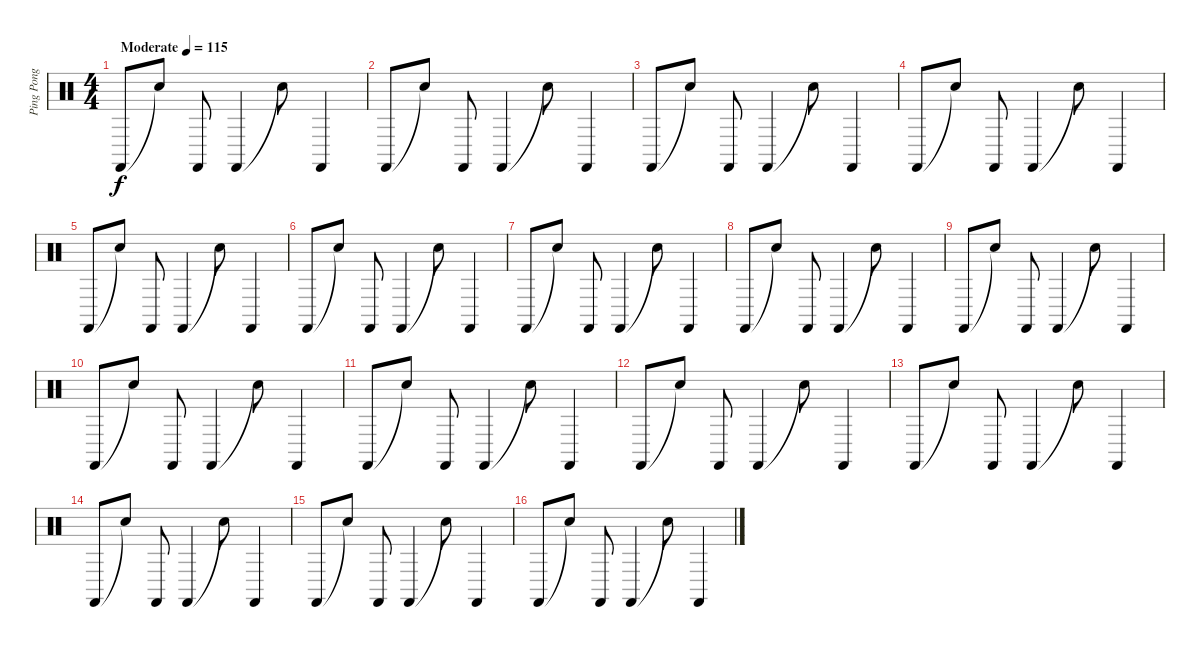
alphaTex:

\track ("Ping Pong" "Ping Pong") {instrument percussion}
\staff {score}
\articulation defaults
\ts (4 4)
\tempo (115 "Moderate")
\clef neutral
\ks c "Castanets (hit)".8{dy f} "Snare (hit)"{t}.8 "Castanets (hit)".8 "Castanets (hit)".4 "Snare (hit)"{t}.8 "Castanets (hit)".4
|
"Castanets (hit)".8 "Snare (hit)"{t}.8 "Castanets (hit)".8 "Castanets (hit)".4 "Snare (hit)"{t}.8 "Castanets (hit)".4 |
"Castanets (hit)".8 "Snare (hit)"{t}.8 "Castanets (hit)".8 "Castanets (hit)".4 "Snare (hit)"{t}.8 "Castanets (hit)".4 |
"Castanets (hit)".8 "Snare (hit)"{t}.8 "Castanets (hit)".8 "Castanets (hit)".4 "Snare (hit)"{t}.8 "Castanets (hit)".4 |
"Castanets (hit)".8 "Snare (hit)"{t}.8 "Castanets (hit)".8 "Castanets (hit)".4 "Snare (hit)"{t}.8 "Castanets (hit)".4 |
"Castanets (hit)".8 "Snare (hit)"{t}.8 "Castanets (hit)".8 "Castanets (hit)".4 "Snare (hit)"{t}.8 "Castanets (hit)".4 |
"Castanets (hit)".8 "Snare (hit)"{t}.8 "Castanets (hit)".8 "Castanets (hit)".4 "Snare (hit)"{t}.8 "Castanets (hit)".4 |
"Castanets (hit)".8 "Snare (hit)"{t}.8 "Castanets (hit)".8 "Castanets (hit)".4 "Snare (hit)"{t}.8 "Castanets (hit)".4 |
"Castanets (hit)".8 "Snare (hit)"{t}.8 "Castanets (hit)".8 "Castanets (hit)".4 "Snare (hit)"{t}.8 "Castanets (hit)".4 |
"Castanets (hit)".8 "Snare (hit)"{t}.8 "Castanets (hit)".8 "Castanets (hit)".4 "Snare (hit)"{t}.8 "Castanets (hit)".4 |
"Castanets (hit)".8 "Snare (hit)"{t}.8 "Castanets (hit)".8 "Castanets (hit)".4 "Snare (hit)"{t}.8 "Castanets (hit)".4 |
"Castanets (hit)".8 "Snare (hit)"{t}.8 "Castanets (hit)".8 "Castanets (hit)".4 "Snare (hit)"{t}.8 "Castanets (hit)".4 |
"Castanets (hit)".8 "Snare (hit)"{t}.8 "Castanets (hit)".8 "Castanets (hit)".4 "Snare (hit)"{t}.8 "Castanets (hit)".4 |
"Castanets (hit)".8 "Snare (hit)"{t}.8 "Castanets (hit)".8 "Castanets (hit)".4 "Snare (hit)"{t}.8 "Castanets (hit)".4 |
"Castanets (hit)".8 "Snare (hit)"{t}.8 "Castanets (hit)".8 "Castanets (hit)".4 "Snare (hit)"{t}.8 "Castanets (hit)".4 |
"Castanets (hit)".8 "Snare (hit)"{t}.8 "Castanets (hit)".8 "Castanets (hit)".4 "Snare (hit)"{t}.8 "Castanets (hit)".4
